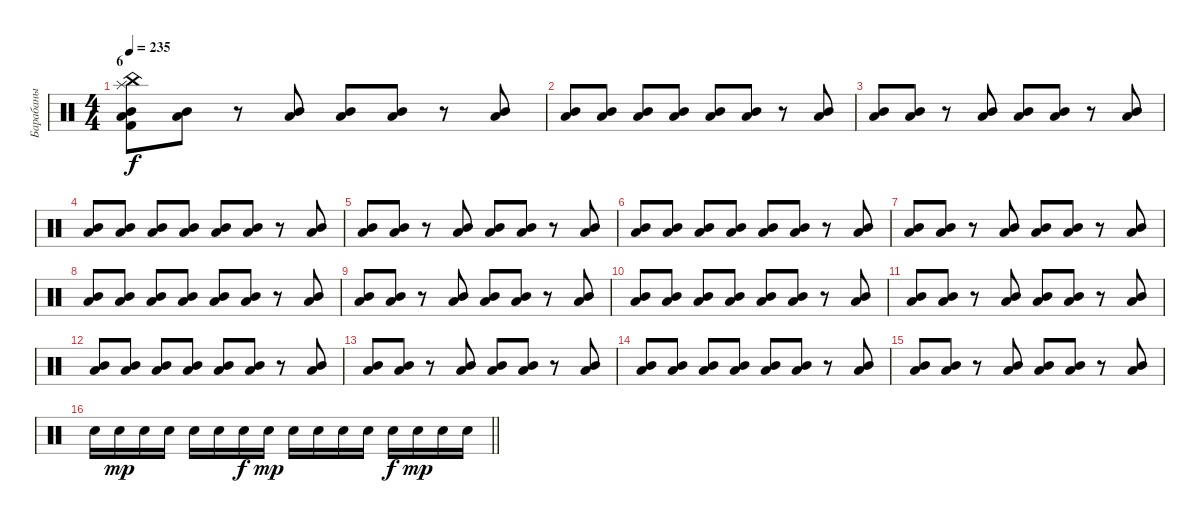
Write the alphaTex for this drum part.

\track ("Барабаны" "Барабаны") {instrument percussion}
\staff {score}
\articulation defaults
\ts (4 4)
\section ("" "6")
\tempo 235
\clef neutral
\ks c
("China (hit)" "Splash (hit)" "Kick (hit) 2" "Mid Tom (hit)" "Low Tom (hit)").8{dy f} ("Mid Tom (hit)" "Low Tom (hit)").8 r.8 ("Mid Tom (hit)" "Low Tom (hit)").8 ("Mid Tom (hit)" "Low Tom (hit)").8 ("Mid Tom (hit)" "Low Tom (hit)").8 r.8 ("Mid Tom (hit)" "Low Tom (hit)").8 |
("Mid Tom (hit)" "Low Tom (hit)").8 ("Mid Tom (hit)" "Low Tom (hit)").8 ("Mid Tom (hit)" "Low Tom (hit)").8 ("Mid Tom (hit)" "Low Tom (hit)").8 ("Mid Tom (hit)" "Low Tom (hit)").8 ("Mid Tom (hit)" "Low Tom (hit)").8 r.8 ("Mid Tom (hit)" "Low Tom (hit)").8 |
("Mid Tom (hit)" "Low Tom (hit)").8 ("Mid Tom (hit)" "Low Tom (hit)").8 r.8 ("Mid Tom (hit)" "Low Tom (hit)").8 ("Mid Tom (hit)" "Low Tom (hit)").8 ("Mid Tom (hit)" "Low Tom (hit)").8 r.8 ("Mid Tom (hit)" "Low Tom (hit)").8 |
("Mid Tom (hit)" "Low Tom (hit)").8 ("Mid Tom (hit)" "Low Tom (hit)").8 ("Mid Tom (hit)" "Low Tom (hit)").8 ("Mid Tom (hit)" "Low Tom (hit)").8 ("Mid Tom (hit)" "Low Tom (hit)").8 ("Mid Tom (hit)" "Low Tom (hit)").8 r.8 ("Mid Tom (hit)" "Low Tom (hit)").8 |
("Mid Tom (hit)" "Low Tom (hit)").8 ("Mid Tom (hit)" "Low Tom (hit)").8 r.8 ("Mid Tom (hit)" "Low Tom (hit)").8 ("Mid Tom (hit)" "Low Tom (hit)").8 ("Mid Tom (hit)" "Low Tom (hit)").8 r.8 ("Mid Tom (hit)" "Low Tom (hit)").8 |
("Mid Tom (hit)" "Low Tom (hit)").8 ("Mid Tom (hit)" "Low Tom (hit)").8 ("Mid Tom (hit)" "Low Tom (hit)").8 ("Mid Tom (hit)" "Low Tom (hit)").8 ("Mid Tom (hit)" "Low Tom (hit)").8 ("Mid Tom (hit)" "Low Tom (hit)").8 r.8 ("Mid Tom (hit)" "Low Tom (hit)").8 |
("Mid Tom (hit)" "Low Tom (hit)").8 ("Mid Tom (hit)" "Low Tom (hit)").8 r.8 ("Mid Tom (hit)" "Low Tom (hit)").8 ("Mid Tom (hit)" "Low Tom (hit)").8 ("Mid Tom (hit)" "Low Tom (hit)").8 r.8 ("Mid Tom (hit)" "Low Tom (hit)").8 |
("Mid Tom (hit)" "Low Tom (hit)").8 ("Mid Tom (hit)" "Low Tom (hit)").8 ("Mid Tom (hit)" "Low Tom (hit)").8 ("Mid Tom (hit)" "Low Tom (hit)").8 ("Mid Tom (hit)" "Low Tom (hit)").8 ("Mid Tom (hit)" "Low Tom (hit)").8 r.8 ("Mid Tom (hit)" "Low Tom (hit)").8 |
("Mid Tom (hit)" "Low Tom (hit)").8 ("Mid Tom (hit)" "Low Tom (hit)").8 r.8 ("Mid Tom (hit)" "Low Tom (hit)").8 ("Mid Tom (hit)" "Low Tom (hit)").8 ("Mid Tom (hit)" "Low Tom (hit)").8 r.8 ("Mid Tom (hit)" "Low Tom (hit)").8 |
("Mid Tom (hit)" "Low Tom (hit)").8 ("Mid Tom (hit)" "Low Tom (hit)").8 ("Mid Tom (hit)" "Low Tom (hit)").8 ("Mid Tom (hit)" "Low Tom (hit)").8 ("Mid Tom (hit)" "Low Tom (hit)").8 ("Mid Tom (hit)" "Low Tom (hit)").8 r.8 ("Mid Tom (hit)" "Low Tom (hit)").8 |
("Mid Tom (hit)" "Low Tom (hit)").8 ("Mid Tom (hit)" "Low Tom (hit)").8 r.8 ("Mid Tom (hit)" "Low Tom (hit)").8 ("Mid Tom (hit)" "Low Tom (hit)").8 ("Mid Tom (hit)" "Low Tom (hit)").8 r.8 ("Mid Tom (hit)" "Low Tom (hit)").8 |
("Mid Tom (hit)" "Low Tom (hit)").8 ("Mid Tom (hit)" "Low Tom (hit)").8 ("Mid Tom (hit)" "Low Tom (hit)").8 ("Mid Tom (hit)" "Low Tom (hit)").8 ("Mid Tom (hit)" "Low Tom (hit)").8 ("Mid Tom (hit)" "Low Tom (hit)").8 r.8 ("Mid Tom (hit)" "Low Tom (hit)").8 |
("Mid Tom (hit)" "Low Tom (hit)").8 ("Mid Tom (hit)" "Low Tom (hit)").8 r.8 ("Mid Tom (hit)" "Low Tom (hit)").8 ("Mid Tom (hit)" "Low Tom (hit)").8 ("Mid Tom (hit)" "Low Tom (hit)").8 r.8 ("Mid Tom (hit)" "Low Tom (hit)").8 |
("Mid Tom (hit)" "Low Tom (hit)").8 ("Mid Tom (hit)" "Low Tom (hit)").8 ("Mid Tom (hit)" "Low Tom (hit)").8 ("Mid Tom (hit)" "Low Tom (hit)").8 ("Mid Tom (hit)" "Low Tom (hit)").8 ("Mid Tom (hit)" "Low Tom (hit)").8 r.8 ("Mid Tom (hit)" "Low Tom (hit)").8 |
("Mid Tom (hit)" "Low Tom (hit)").8 ("Mid Tom (hit)" "Low Tom (hit)").8 r.8 ("Mid Tom (hit)" "Low Tom (hit)").8 ("Mid Tom (hit)" "Low Tom (hit)").8 ("Mid Tom (hit)" "Low Tom (hit)").8 r.8 ("Mid Tom (hit)" "Low Tom (hit)").8 |
\barLineRight lightlight "Electric Snare (hit)".16 "Electric Snare (hit)".16{dy mp} "Electric Snare (hit)".16 "Electric Snare (hit)".16 "Electric Snare (hit)".16 "Electric Snare (hit)".16 "Electric Snare (hit)".16{dy f} "Electric Snare (hit)".16{dy mp} "Electric Snare (hit)".16 "Electric Snare (hit)".16 "Electric Snare (hit)".16 "Electric Snare (hit)".16 "Electric Snare (hit)".16{dy f} "Electric Snare (hit)".16{dy mp} "Electric Snare (hit)".16 "Electric Snare (hit)".16
